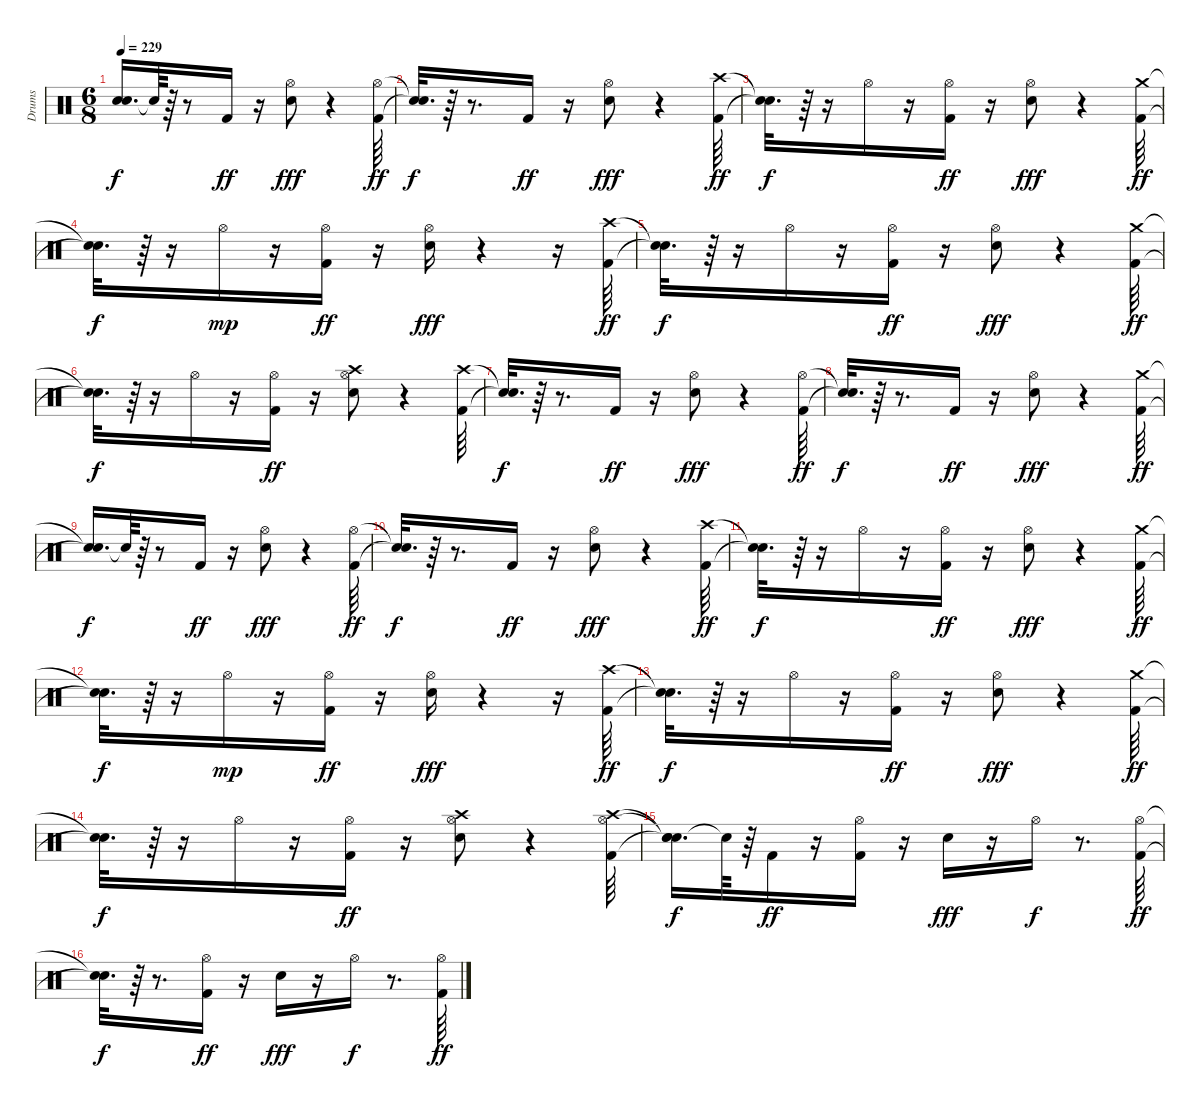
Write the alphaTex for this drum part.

\track ("Drums" "Drums") {instrument percussion}
\staff {score}
\articulation defaults
\ts (6 8)
\tempo 229
\clef neutral
\ks c
("Snare (hit)"{t} "Snare (hit)"{t}).16{d dy f} "Snare (hit)"{t}.64 r.64 r.8 "Kick (hit) 2".16{dy ff} r.16 ("Snare (hit) 2" "Hi-Hat (open)").8{dy fff} r.4 ("Kick (hit) 2" "Hi-Hat (open)").64{dy ff} |
("Snare (hit)"{t} "Snare (hit)"{t}).32{d dy f} r.64 r.8{d} "Kick (hit) 2".16{dy ff} r.16 ("Snare (hit) 2" "Hi-Hat (open)").8{dy fff} r.4 ("Kick (hit) 2" "Crash high (hit)").64{dy ff} |
("Snare (hit)"{t} "Snare (hit)"{t}).32{d dy f} r.64 r.16 "Hi-Hat (open)".16 r.16 ("Kick (hit) 2" "Hi-Hat (open)").16{dy ff} r.16 ("Snare (hit) 2" "Hi-Hat (open)").8{dy fff} r.4 ("Kick (hit) 2" "Crash medium (hit)").64{dy ff} |
("Snare (hit)"{t} "Snare (hit)"{t}).32{d dy f} r.64 r.16 "Hi-Hat (open)".16{dy mp} r.16 ("Kick (hit) 2" "Hi-Hat (open)").16{dy ff} r.16 ("Snare (hit) 2" "Hi-Hat (open)").16{dy fff} r.4 r.16 ("Kick (hit) 2" "Crash high (hit)").64{dy ff} |
("Snare (hit)"{t} "Snare (hit)"{t}).32{d dy f} r.64 r.16 "Hi-Hat (open)".16 r.16 ("Kick (hit) 2" "Hi-Hat (open)").16{dy ff} r.16 ("Snare (hit) 2" "Hi-Hat (open)").8{dy fff} r.4 ("Kick (hit) 2" "Crash medium (hit)").64{dy ff} |
("Snare (hit)"{t} "Snare (hit)"{t}).32{d dy f} r.64 r.16 "Hi-Hat (open)".16 r.16 ("Kick (hit) 2" "Hi-Hat (open)").16{dy ff} r.16 ("Snare (hit) 2" "Hi-Hat (open)" "Crash high (hit)").8 r.4 ("Kick (hit) 2" "Crash high (hit)").64 |
("Snare (hit)"{t} "Snare (hit)"{t}).32{d dy f} r.64 r.8{d} "Kick (hit) 2".16{dy ff} r.16 ("Snare (hit) 2" "Hi-Hat (open)").8{dy fff} r.4 ("Kick (hit) 2" "Hi-Hat (open)").64{dy ff} |
("Snare (hit)"{t} "Snare (hit)"{t}).32{d dy f} r.64 r.8{d} "Kick (hit) 2".16{dy ff} r.16 ("Snare (hit) 2" "Hi-Hat (open)").8{dy fff} r.4 ("Kick (hit) 2" "Crash medium (hit)").64{dy ff} |
("Snare (hit)"{t} "Snare (hit)"{t}).16{d dy f} "Snare (hit)"{t}.64 r.64 r.8 "Kick (hit) 2".16{dy ff} r.16 ("Snare (hit) 2" "Hi-Hat (open)").8{dy fff} r.4 ("Kick (hit) 2" "Hi-Hat (open)").64{dy ff} |
("Snare (hit)"{t} "Snare (hit)"{t}).32{d dy f} r.64 r.8{d} "Kick (hit) 2".16{dy ff} r.16 ("Snare (hit) 2" "Hi-Hat (open)").8{dy fff} r.4 ("Kick (hit) 2" "Crash high (hit)").64{dy ff} |
("Snare (hit)"{t} "Snare (hit)"{t}).32{d dy f} r.64 r.16 "Hi-Hat (open)".16 r.16 ("Kick (hit) 2" "Hi-Hat (open)").16{dy ff} r.16 ("Snare (hit) 2" "Hi-Hat (open)").8{dy fff} r.4 ("Kick (hit) 2" "Crash medium (hit)").64{dy ff} |
("Snare (hit)"{t} "Snare (hit)"{t}).32{d dy f} r.64 r.16 "Hi-Hat (open)".16{dy mp} r.16 ("Kick (hit) 2" "Hi-Hat (open)").16{dy ff} r.16 ("Snare (hit) 2" "Hi-Hat (open)").16{dy fff} r.4 r.16 ("Kick (hit) 2" "Crash high (hit)").64{dy ff} |
("Snare (hit)"{t} "Snare (hit)"{t}).32{d dy f} r.64 r.16 "Hi-Hat (open)".16 r.16 ("Kick (hit) 2" "Hi-Hat (open)").16{dy ff} r.16 ("Snare (hit) 2" "Hi-Hat (open)").8{dy fff} r.4 ("Kick (hit) 2" "Crash medium (hit)").64{dy ff} |
("Snare (hit)"{t} "Snare (hit)"{t}).32{d dy f} r.64 r.16 "Hi-Hat (open)".16 r.16 ("Kick (hit) 2" "Hi-Hat (open)").16{dy ff} r.16 ("Snare (hit) 2" "Hi-Hat (open)" "Crash high (hit)").8 r.4 ("Kick (hit) 2" "Hi-Hat (open)" "Crash high (hit)").64 |
("Snare (hit)"{t} "Snare (hit)"{t} "Snare (hit)"{t}).16{d dy f} "Snare (hit)"{t}.64 r.64 "Kick (hit) 2".16{dy ff} r.16 ("Kick (hit) 2" "Hi-Hat (open)").16 r.16 "Snare (hit) 2".16{dy fff} r.16 "Hi-Hat (open)".16{dy f} r.8{d} ("Kick (hit) 2" "Hi-Hat (open)").64{dy ff} |
("Snare (hit)"{t} "Snare (hit)"{t}).32{d dy f} r.64 r.8{d} ("Kick (hit) 2" "Hi-Hat (open)").16{dy ff} r.16 "Snare (hit) 2".16{dy fff} r.16 "Hi-Hat (open)".16{dy f} r.8{d} ("Kick (hit) 2" "Hi-Hat (open)").64{dy ff}
